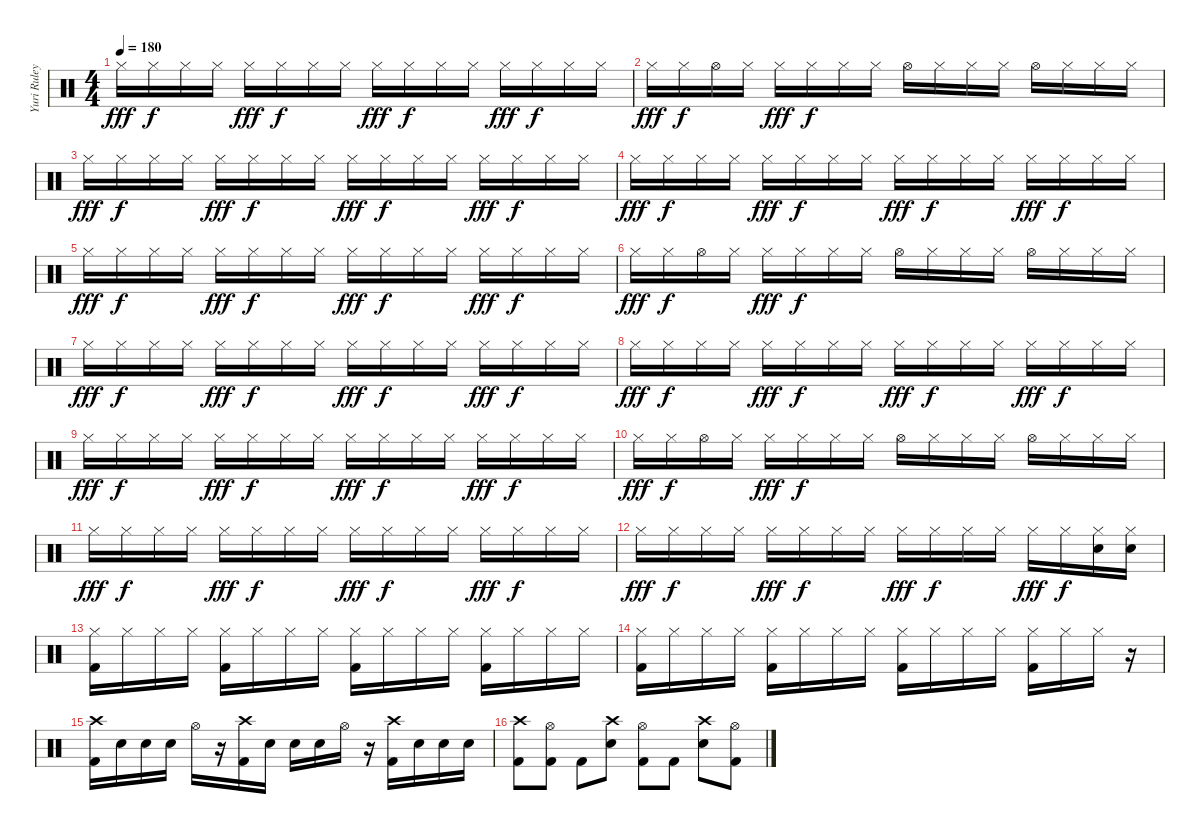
\track ("Yuri Ruley [Drums]" "Yuri Ruley") {instrument percussion}
\staff {score}
\articulation defaults
\ts (4 4)
\tempo 180
\clef neutral
\ks c "Hi-Hat (closed)".16{dy fff} "Hi-Hat (closed)".16{dy f} "Hi-Hat (closed)".16 "Hi-Hat (closed)".16 "Hi-Hat (closed)".16{dy fff} "Hi-Hat (closed)".16{dy f} "Hi-Hat (closed)".16 "Hi-Hat (closed)".16 "Hi-Hat (closed)".16{dy fff} "Hi-Hat (closed)".16{dy f} "Hi-Hat (closed)".16 "Hi-Hat (closed)".16 "Hi-Hat (closed)".16{dy fff} "Hi-Hat (closed)".16{dy f} "Hi-Hat (closed)".16 "Hi-Hat (closed)".16
|
"Hi-Hat (closed)".16{dy fff} "Hi-Hat (closed)".16{dy f} "Hi-Hat (open)".16 "Hi-Hat (closed)".16 "Hi-Hat (closed)".16{dy fff} "Hi-Hat (closed)".16{dy f} "Hi-Hat (closed)".16 "Hi-Hat (closed)".16 "Hi-Hat (open)".16 "Hi-Hat (closed)".16 "Hi-Hat (closed)".16 "Hi-Hat (closed)".16 "Hi-Hat (open)".16 "Hi-Hat (closed)".16 "Hi-Hat (closed)".16 "Hi-Hat (closed)".16 |
"Hi-Hat (closed)".16{dy fff} "Hi-Hat (closed)".16{dy f} "Hi-Hat (closed)".16 "Hi-Hat (closed)".16 "Hi-Hat (closed)".16{dy fff} "Hi-Hat (closed)".16{dy f} "Hi-Hat (closed)".16 "Hi-Hat (closed)".16 "Hi-Hat (closed)".16{dy fff} "Hi-Hat (closed)".16{dy f} "Hi-Hat (closed)".16 "Hi-Hat (closed)".16 "Hi-Hat (closed)".16{dy fff} "Hi-Hat (closed)".16{dy f} "Hi-Hat (closed)".16 "Hi-Hat (closed)".16 |
"Hi-Hat (closed)".16{dy fff} "Hi-Hat (closed)".16{dy f} "Hi-Hat (closed)".16 "Hi-Hat (closed)".16 "Hi-Hat (closed)".16{dy fff} "Hi-Hat (closed)".16{dy f} "Hi-Hat (closed)".16 "Hi-Hat (closed)".16 "Hi-Hat (closed)".16{dy fff} "Hi-Hat (closed)".16{dy f} "Hi-Hat (closed)".16 "Hi-Hat (closed)".16 "Hi-Hat (closed)".16{dy fff} "Hi-Hat (closed)".16{dy f} "Hi-Hat (closed)".16 "Hi-Hat (closed)".16 |
"Hi-Hat (closed)".16{dy fff} "Hi-Hat (closed)".16{dy f} "Hi-Hat (closed)".16 "Hi-Hat (closed)".16 "Hi-Hat (closed)".16{dy fff} "Hi-Hat (closed)".16{dy f} "Hi-Hat (closed)".16 "Hi-Hat (closed)".16 "Hi-Hat (closed)".16{dy fff} "Hi-Hat (closed)".16{dy f} "Hi-Hat (closed)".16 "Hi-Hat (closed)".16 "Hi-Hat (closed)".16{dy fff} "Hi-Hat (closed)".16{dy f} "Hi-Hat (closed)".16 "Hi-Hat (closed)".16 |
"Hi-Hat (closed)".16{dy fff} "Hi-Hat (closed)".16{dy f} "Hi-Hat (open)".16 "Hi-Hat (closed)".16 "Hi-Hat (closed)".16{dy fff} "Hi-Hat (closed)".16{dy f} "Hi-Hat (closed)".16 "Hi-Hat (closed)".16 "Hi-Hat (open)".16 "Hi-Hat (closed)".16 "Hi-Hat (closed)".16 "Hi-Hat (closed)".16 "Hi-Hat (open)".16 "Hi-Hat (closed)".16 "Hi-Hat (closed)".16 "Hi-Hat (closed)".16 |
"Hi-Hat (closed)".16{dy fff} "Hi-Hat (closed)".16{dy f} "Hi-Hat (closed)".16 "Hi-Hat (closed)".16 "Hi-Hat (closed)".16{dy fff} "Hi-Hat (closed)".16{dy f} "Hi-Hat (closed)".16 "Hi-Hat (closed)".16 "Hi-Hat (closed)".16{dy fff} "Hi-Hat (closed)".16{dy f} "Hi-Hat (closed)".16 "Hi-Hat (closed)".16 "Hi-Hat (closed)".16{dy fff} "Hi-Hat (closed)".16{dy f} "Hi-Hat (closed)".16 "Hi-Hat (closed)".16 |
"Hi-Hat (closed)".16{dy fff} "Hi-Hat (closed)".16{dy f} "Hi-Hat (closed)".16 "Hi-Hat (closed)".16 "Hi-Hat (closed)".16{dy fff} "Hi-Hat (closed)".16{dy f} "Hi-Hat (closed)".16 "Hi-Hat (closed)".16 "Hi-Hat (closed)".16{dy fff} "Hi-Hat (closed)".16{dy f} "Hi-Hat (closed)".16 "Hi-Hat (closed)".16 "Hi-Hat (closed)".16{dy fff} "Hi-Hat (closed)".16{dy f} "Hi-Hat (closed)".16 "Hi-Hat (closed)".16 |
"Hi-Hat (closed)".16{dy fff} "Hi-Hat (closed)".16{dy f} "Hi-Hat (closed)".16 "Hi-Hat (closed)".16 "Hi-Hat (closed)".16{dy fff} "Hi-Hat (closed)".16{dy f} "Hi-Hat (closed)".16 "Hi-Hat (closed)".16 "Hi-Hat (closed)".16{dy fff} "Hi-Hat (closed)".16{dy f} "Hi-Hat (closed)".16 "Hi-Hat (closed)".16 "Hi-Hat (closed)".16{dy fff} "Hi-Hat (closed)".16{dy f} "Hi-Hat (closed)".16 "Hi-Hat (closed)".16 |
"Hi-Hat (closed)".16{dy fff} "Hi-Hat (closed)".16{dy f} "Hi-Hat (open)".16 "Hi-Hat (closed)".16 "Hi-Hat (closed)".16{dy fff} "Hi-Hat (closed)".16{dy f} "Hi-Hat (closed)".16 "Hi-Hat (closed)".16 "Hi-Hat (open)".16 "Hi-Hat (closed)".16 "Hi-Hat (closed)".16 "Hi-Hat (closed)".16 "Hi-Hat (open)".16 "Hi-Hat (closed)".16 "Hi-Hat (closed)".16 "Hi-Hat (closed)".16 |
"Hi-Hat (closed)".16{dy fff} "Hi-Hat (closed)".16{dy f} "Hi-Hat (closed)".16 "Hi-Hat (closed)".16 "Hi-Hat (closed)".16{dy fff} "Hi-Hat (closed)".16{dy f} "Hi-Hat (closed)".16 "Hi-Hat (closed)".16 "Hi-Hat (closed)".16{dy fff} "Hi-Hat (closed)".16{dy f} "Hi-Hat (closed)".16 "Hi-Hat (closed)".16 "Hi-Hat (closed)".16{dy fff} "Hi-Hat (closed)".16{dy f} "Hi-Hat (closed)".16 "Hi-Hat (closed)".16 |
"Hi-Hat (closed)".16{dy fff} "Hi-Hat (closed)".16{dy f} "Hi-Hat (closed)".16 "Hi-Hat (closed)".16 "Hi-Hat (closed)".16{dy fff} "Hi-Hat (closed)".16{dy f} "Hi-Hat (closed)".16 "Hi-Hat (closed)".16 "Hi-Hat (closed)".16{dy fff} "Hi-Hat (closed)".16{dy f} "Hi-Hat (closed)".16 "Hi-Hat (closed)".16 "Hi-Hat (closed)".16{dy fff} "Hi-Hat (closed)".16{dy f} ("Hi-Hat (closed)" "Snare (hit) 2").16 ("Hi-Hat (closed)" "Snare (hit) 2").16 |
("Hi-Hat (closed)" "Kick (hit) 2").16 "Hi-Hat (closed)".16 "Hi-Hat (closed)".16 "Hi-Hat (closed)".16 ("Hi-Hat (closed)" "Kick (hit) 2").16 "Hi-Hat (closed)".16 "Hi-Hat (closed)".16 "Hi-Hat (closed)".16 ("Hi-Hat (closed)" "Kick (hit) 2").16 "Hi-Hat (closed)".16 "Hi-Hat (closed)".16 "Hi-Hat (closed)".16 ("Hi-Hat (closed)" "Kick (hit) 2").16 "Hi-Hat (closed)".16 "Hi-Hat (closed)".16 "Hi-Hat (closed)".16 |
("Hi-Hat (closed)" "Kick (hit) 2").16 "Hi-Hat (closed)".16 "Hi-Hat (closed)".16 "Hi-Hat (closed)".16 ("Hi-Hat (closed)" "Kick (hit) 2").16 "Hi-Hat (closed)".16 "Hi-Hat (closed)".16 "Hi-Hat (closed)".16 ("Hi-Hat (closed)" "Kick (hit) 2").16 "Hi-Hat (closed)".16 "Hi-Hat (closed)".16 "Hi-Hat (closed)".16 ("Hi-Hat (closed)" "Kick (hit) 2").16 "Hi-Hat (closed)".16 "Hi-Hat (closed)".16 r.16 |
("Crash high (hit)" "Kick (hit) 2").16 "Snare (hit) 2".16 "Snare (hit) 2".16 "Snare (hit) 2".16 "Hi-Hat (open)".16 r.16 ("Crash high (hit)" "Kick (hit) 2").16 "Snare (hit) 2".16 "Snare (hit) 2".16 "Snare (hit) 2".16 "Hi-Hat (open)".16 r.16 ("Crash high (hit)" "Kick (hit) 2").16 "Snare (hit) 2".16 "Snare (hit) 2".16 "Snare (hit) 2".16 |
("Crash high (hit)" "Kick (hit) 2").8 ("Hi-Hat (open)" "Kick (hit) 2").8 "Kick (hit) 2".8 ("Crash high (hit)" "Snare (hit) 2").8 ("Hi-Hat (open)" "Kick (hit) 2").8 "Kick (hit) 2".8 ("Crash high (hit)" "Snare (hit) 2").8 ("Hi-Hat (open)" "Kick (hit) 2").8
